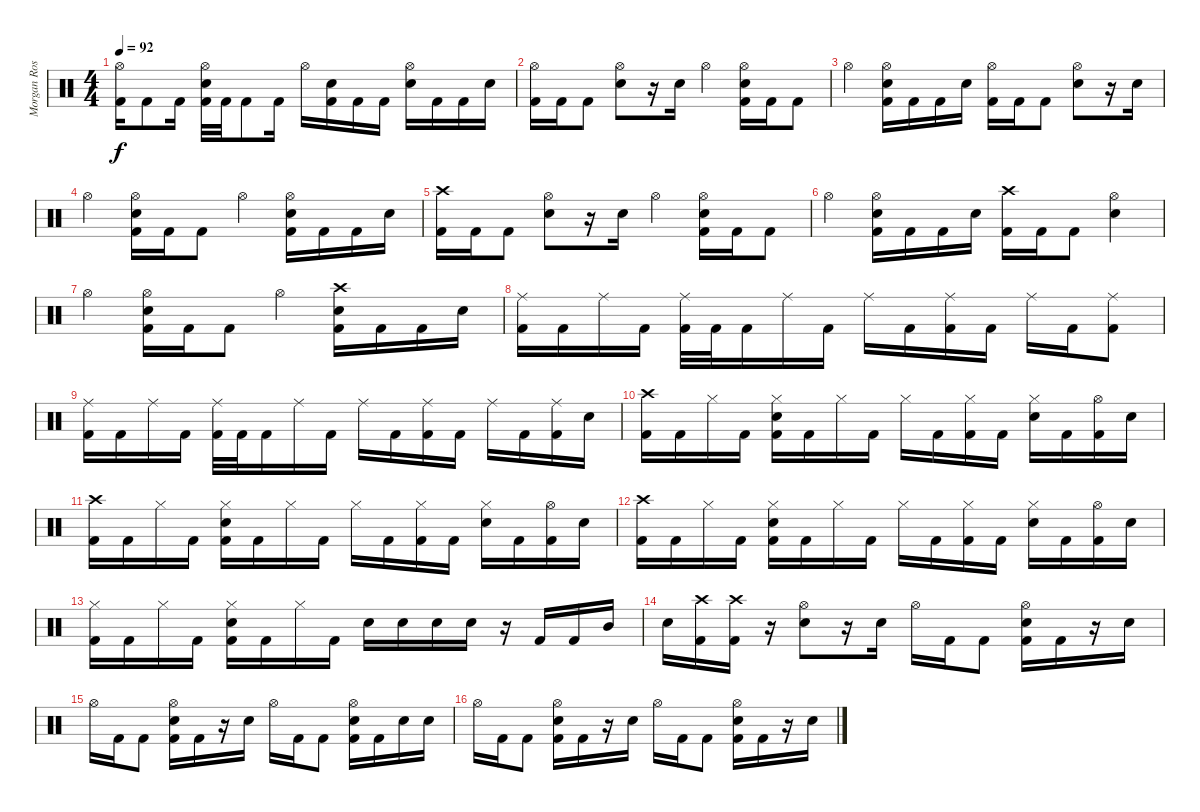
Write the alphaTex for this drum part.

\track ("Morgan Rose - Drums" "Morgan Ros") {instrument percussion}
\staff {score}
\articulation defaults
\ts (4 4)
\tempo 92
\clef neutral
\ks c
("Hi-Hat (open)" "Kick (hit) 2").16{dy f} "Kick (hit) 2".8 "Kick (hit) 2".16 ("Hi-Hat (open)" "Electric Snare (hit)" "Kick (hit) 2").32 "Kick (hit) 2".32 "Kick (hit) 2".8 "Kick (hit) 2".16 "Hi-Hat (open)".16 ("Electric Snare (hit)" "Kick (hit) 2").16 "Kick (hit) 2".16 "Kick (hit) 2".16 ("Hi-Hat (open)" "Electric Snare (hit)").16 "Kick (hit) 2".16 "Kick (hit) 2".16 "Electric Snare (hit)".16 |
("Hi-Hat (open)" "Kick (hit) 2").16 "Kick (hit) 2".16 "Kick (hit) 2".8 ("Hi-Hat (open)" "Electric Snare (hit)").8 r.16 "Electric Snare (hit)".16 "Hi-Hat (open)".4 ("Hi-Hat (open)" "Electric Snare (hit)" "Kick (hit) 2").16 "Kick (hit) 2".16 "Kick (hit) 2".8 |
"Hi-Hat (open)".4 ("Hi-Hat (open)" "Electric Snare (hit)" "Kick (hit) 2").16 "Kick (hit) 2".16 "Kick (hit) 2".16 "Electric Snare (hit)".16 ("Hi-Hat (open)" "Kick (hit) 2").16 "Kick (hit) 2".16 "Kick (hit) 2".8 ("Hi-Hat (open)" "Electric Snare (hit)").8 r.16 "Electric Snare (hit)".16 |
"Hi-Hat (open)".4 ("Hi-Hat (open)" "Electric Snare (hit)" "Kick (hit) 2").16 "Kick (hit) 2".16 "Kick (hit) 2".8 "Hi-Hat (open)".4 ("Hi-Hat (open)" "Electric Snare (hit)" "Kick (hit) 2").16 "Kick (hit) 2".16 "Kick (hit) 2".16 "Electric Snare (hit)".16 |
("Crash high (hit)" "Kick (hit) 2").16 "Kick (hit) 2".16 "Kick (hit) 2".8 ("Hi-Hat (open)" "Electric Snare (hit)").8 r.16 "Electric Snare (hit)".16 "Hi-Hat (open)".4 ("Hi-Hat (open)" "Electric Snare (hit)" "Kick (hit) 2").16 "Kick (hit) 2".16 "Kick (hit) 2".8 |
"Hi-Hat (open)".4 ("Hi-Hat (open)" "Electric Snare (hit)" "Kick (hit) 2").16 "Kick (hit) 2".16 "Kick (hit) 2".16 "Electric Snare (hit)".16 ("Crash high (hit)" "Kick (hit) 2").16 "Kick (hit) 2".16 "Kick (hit) 2".8 ("Hi-Hat (open)" "Electric Snare (hit)").4 |
"Hi-Hat (open)".4 ("Hi-Hat (open)" "Electric Snare (hit)" "Kick (hit) 2").16 "Kick (hit) 2".16 "Kick (hit) 2".8 "Hi-Hat (open)".4 ("Crash high (hit)" "Electric Snare (hit)" "Kick (hit) 2").16 "Kick (hit) 2".16 "Kick (hit) 2".16 "Electric Snare (hit)".16 |
("Ride (middle)" "Kick (hit) 2").16 "Kick (hit) 2".16 "Ride (middle)".16 "Kick (hit) 2".16 ("Ride (middle)" "Kick (hit) 2").32 "Kick (hit) 2".32 "Kick (hit) 2".16 "Ride (middle)".16 "Kick (hit) 2".16 "Ride (middle)".16 "Kick (hit) 2".16 ("Ride (middle)" "Kick (hit) 2").16 "Kick (hit) 2".16 "Ride (middle)".16 "Kick (hit) 2".16 ("Ride (middle)" "Kick (hit) 2").8 |
("Ride (middle)" "Kick (hit) 2").16 "Kick (hit) 2".16 "Ride (middle)".16 "Kick (hit) 2".16 ("Ride (middle)" "Kick (hit) 2").32 "Kick (hit) 2".32 "Kick (hit) 2".16 "Ride (middle)".16 "Kick (hit) 2".16 "Ride (middle)".16 "Kick (hit) 2".16 ("Ride (middle)" "Kick (hit) 2").16 "Kick (hit) 2".16 "Ride (middle)".16 "Kick (hit) 2".16 ("Ride (middle)" "Kick (hit) 2").16 "Electric Snare (hit)".16 |
("Crash high (hit)" "Kick (hit) 2").16 "Kick (hit) 2".16 "Hi-Hat (closed)".16 "Kick (hit) 2".16 ("Hi-Hat (closed)" "Electric Snare (hit)" "Kick (hit) 2").16 "Kick (hit) 2".16 "Hi-Hat (closed)".16 "Kick (hit) 2".16 "Hi-Hat (closed)".16 "Kick (hit) 2".16 ("Hi-Hat (closed)" "Kick (hit) 2").16 "Kick (hit) 2".16 ("Hi-Hat (closed)" "Electric Snare (hit)").16 "Kick (hit) 2".16 ("Hi-Hat (open)" "Kick (hit) 2").16 "Electric Snare (hit)".16 |
("Crash high (hit)" "Kick (hit) 2").16 "Kick (hit) 2".16 "Hi-Hat (closed)".16 "Kick (hit) 2".16 ("Hi-Hat (closed)" "Electric Snare (hit)" "Kick (hit) 2").16 "Kick (hit) 2".16 "Hi-Hat (closed)".16 "Kick (hit) 2".16 "Hi-Hat (closed)".16 "Kick (hit) 2".16 ("Hi-Hat (closed)" "Kick (hit) 2").16 "Kick (hit) 2".16 ("Hi-Hat (closed)" "Electric Snare (hit)").16 "Kick (hit) 2".16 ("Hi-Hat (open)" "Kick (hit) 2").16 "Electric Snare (hit)".16 |
("Crash high (hit)" "Kick (hit) 2").16 "Kick (hit) 2".16 "Hi-Hat (closed)".16 "Kick (hit) 2".16 ("Hi-Hat (closed)" "Electric Snare (hit)" "Kick (hit) 2").16 "Kick (hit) 2".16 "Hi-Hat (closed)".16 "Kick (hit) 2".16 "Hi-Hat (closed)".16 "Kick (hit) 2".16 ("Hi-Hat (closed)" "Kick (hit) 2").16 "Kick (hit) 2".16 ("Hi-Hat (closed)" "Electric Snare (hit)").16 "Kick (hit) 2".16 ("Hi-Hat (open)" "Kick (hit) 2").16 "Electric Snare (hit)".16 |
("Hi-Hat (closed)" "Kick (hit) 2").16 "Kick (hit) 2".16 "Hi-Hat (closed)".16 "Kick (hit) 2".16 ("Hi-Hat (closed)" "Electric Snare (hit)" "Kick (hit) 2").16 "Kick (hit) 2".16 "Hi-Hat (closed)".16 "Kick (hit) 2".16 "Electric Snare (hit)".16 "Electric Snare (hit)".16 "Electric Snare (hit)".16 "Electric Snare (hit)".16 r.16 "Kick (hit) 2".16 "Kick (hit) 2".16 "Mid Tom (hit)".16 |
"Electric Snare (hit)".16 ("Crash high (hit)" "Kick (hit) 2").16 ("Crash high (hit)" "Kick (hit) 2").16 r.16 ("Hi-Hat (open)" "Electric Snare (hit)").8 r.16 "Electric Snare (hit)".16 "Hi-Hat (open)".16 "Kick (hit) 2".16 "Kick (hit) 2".8 ("Hi-Hat (open)" "Electric Snare (hit)" "Kick (hit) 2").16 "Kick (hit) 2".16 r.16 "Electric Snare (hit)".16 |
"Hi-Hat (open)".16 "Kick (hit) 2".16 "Kick (hit) 2".8 ("Hi-Hat (open)" "Electric Snare (hit)" "Kick (hit) 2").16 "Kick (hit) 2".16 r.16 "Electric Snare (hit)".16 "Hi-Hat (open)".16 "Kick (hit) 2".16 "Kick (hit) 2".8 ("Hi-Hat (open)" "Electric Snare (hit)" "Kick (hit) 2").16 "Kick (hit) 2".16 "Electric Snare (hit)".16 "Electric Snare (hit)".16 |
"Hi-Hat (open)".16 "Kick (hit) 2".16 "Kick (hit) 2".8 ("Hi-Hat (open)" "Electric Snare (hit)" "Kick (hit) 2").16 "Kick (hit) 2".16 r.16 "Electric Snare (hit)".16 "Hi-Hat (open)".16 "Kick (hit) 2".16 "Kick (hit) 2".8 ("Hi-Hat (open)" "Electric Snare (hit)" "Kick (hit) 2").16 "Kick (hit) 2".16 r.16 "Electric Snare (hit)".16
